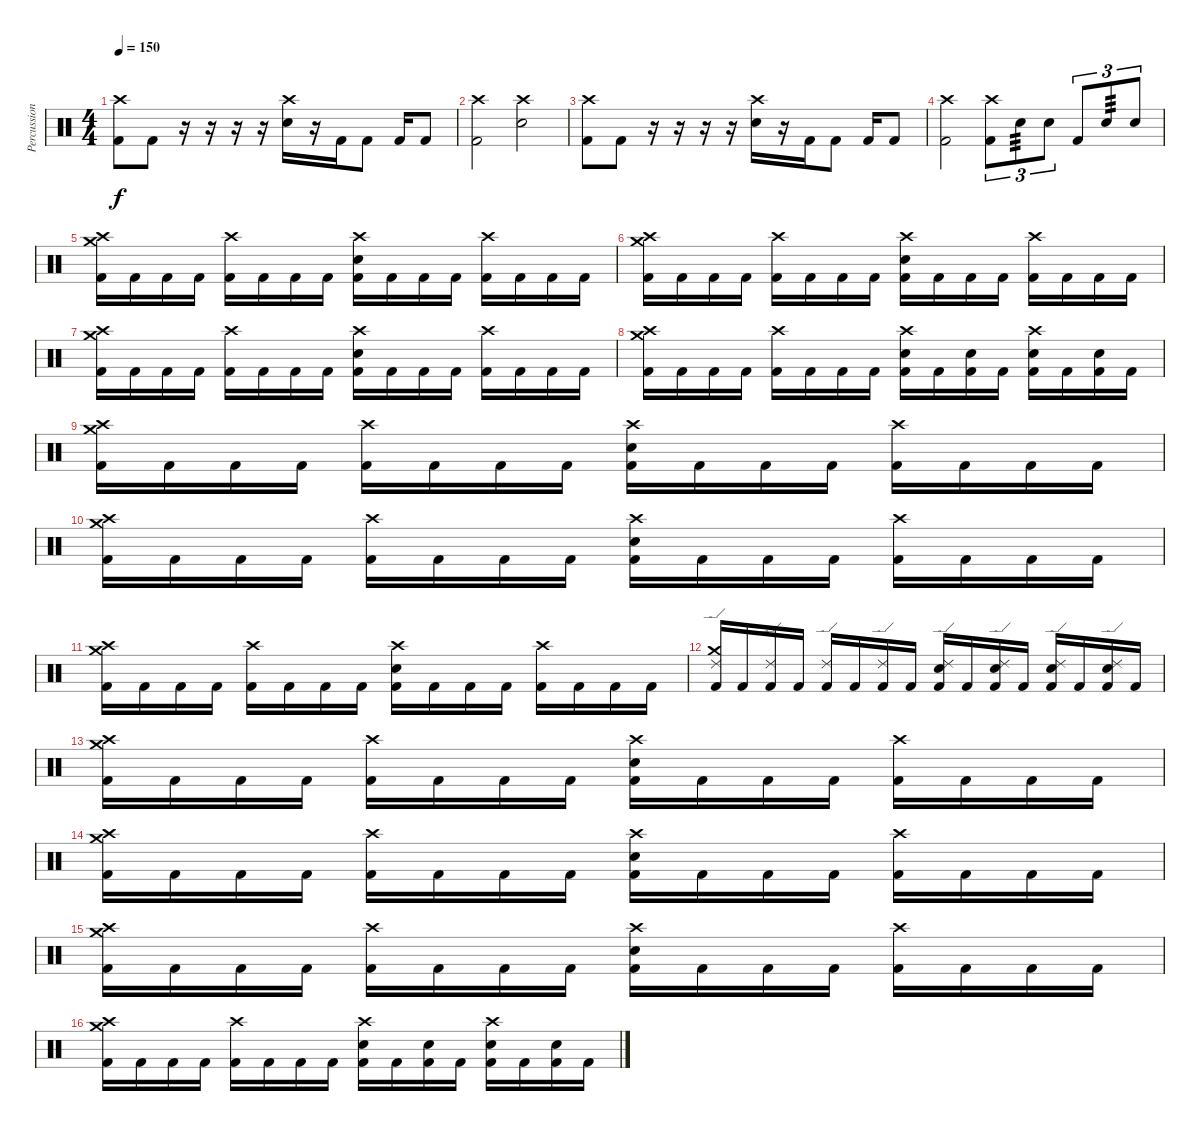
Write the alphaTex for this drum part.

\track ("Percussion" "Percussion") {instrument percussion}
\staff {score}
\articulation defaults
\ts (4 4)
\tempo 150
\clef neutral
\ks c
("Crash high (hit)" "Kick (hit) 2").8{dy f} "Kick (hit) 2".8 r.16 r.16 r.16 r.16 ("Crash high (hit)" "Electric Snare (hit)").16 r.16 "Kick (hit) 2".16 "Kick (hit) 2".8 "Kick (hit) 2".16 "Kick (hit) 2".8 |
("Crash high (hit)" "Kick (hit) 2").2 ("Crash high (hit)" "Electric Snare (hit)").2 |
("Crash high (hit)" "Kick (hit) 2").8 "Kick (hit) 2".8 r.16 r.16 r.16 r.16 ("Crash high (hit)" "Electric Snare (hit)").16 r.16 "Kick (hit) 2".16 "Kick (hit) 2".8 "Kick (hit) 2".16 "Kick (hit) 2".8 |
("Crash high (hit)" "Kick (hit) 2").2 ("Crash high (hit)" "Kick (hit) 2").8{tu (3 2)} "Electric Snare (hit)".8{tu (3 2) tp 3} "Electric Snare (hit)".8{tu (3 2)} "Kick (hit) 2".8{tu (3 2)} "Electric Snare (hit)".8{tu (3 2) tp 3} "Electric Snare (hit)".8{tu (3 2)} |
("Crash high (hit)" "Crash medium (hit)" "Kick (hit) 2").16 "Kick (hit) 2".16 "Kick (hit) 2".16 "Kick (hit) 2".16 ("Crash high (hit)" "Kick (hit) 2").16 "Kick (hit) 2".16 "Kick (hit) 2".16 "Kick (hit) 2".16 ("Crash high (hit)" "Electric Snare (hit)" "Kick (hit) 2").16 "Kick (hit) 2".16 "Kick (hit) 2".16 "Kick (hit) 2".16 ("Crash high (hit)" "Kick (hit) 2").16 "Kick (hit) 2".16 "Kick (hit) 2".16 "Kick (hit) 2".16 |
("Crash high (hit)" "Crash medium (hit)" "Kick (hit) 2").16 "Kick (hit) 2".16 "Kick (hit) 2".16 "Kick (hit) 2".16 ("Crash high (hit)" "Kick (hit) 2").16 "Kick (hit) 2".16 "Kick (hit) 2".16 "Kick (hit) 2".16 ("Crash high (hit)" "Electric Snare (hit)" "Kick (hit) 2").16 "Kick (hit) 2".16 "Kick (hit) 2".16 "Kick (hit) 2".16 ("Crash high (hit)" "Kick (hit) 2").16 "Kick (hit) 2".16 "Kick (hit) 2".16 "Kick (hit) 2".16 |
("Crash high (hit)" "Crash medium (hit)" "Kick (hit) 2").16 "Kick (hit) 2".16 "Kick (hit) 2".16 "Kick (hit) 2".16 ("Crash high (hit)" "Kick (hit) 2").16 "Kick (hit) 2".16 "Kick (hit) 2".16 "Kick (hit) 2".16 ("Crash high (hit)" "Electric Snare (hit)" "Kick (hit) 2").16 "Kick (hit) 2".16 "Kick (hit) 2".16 "Kick (hit) 2".16 ("Crash high (hit)" "Kick (hit) 2").16 "Kick (hit) 2".16 "Kick (hit) 2".16 "Kick (hit) 2".16 |
("Crash high (hit)" "Crash medium (hit)" "Kick (hit) 2").16 "Kick (hit) 2".16 "Kick (hit) 2".16 "Kick (hit) 2".16 ("Crash high (hit)" "Kick (hit) 2").16 "Kick (hit) 2".16 "Kick (hit) 2".16 "Kick (hit) 2".16 ("Crash high (hit)" "Electric Snare (hit)" "Kick (hit) 2").16 "Kick (hit) 2".16 ("Electric Snare (hit)" "Kick (hit) 2").16 "Kick (hit) 2".16 ("Crash high (hit)" "Electric Snare (hit)" "Kick (hit) 2").16 "Kick (hit) 2".16 ("Electric Snare (hit)" "Kick (hit) 2").16 "Kick (hit) 2".16 |
("Crash high (hit)" "Crash medium (hit)" "Kick (hit) 2").16 "Kick (hit) 2".16 "Kick (hit) 2".16 "Kick (hit) 2".16 ("Crash high (hit)" "Kick (hit) 2").16 "Kick (hit) 2".16 "Kick (hit) 2".16 "Kick (hit) 2".16 ("Crash high (hit)" "Electric Snare (hit)" "Kick (hit) 2").16 "Kick (hit) 2".16 "Kick (hit) 2".16 "Kick (hit) 2".16 ("Crash high (hit)" "Kick (hit) 2").16 "Kick (hit) 2".16 "Kick (hit) 2".16 "Kick (hit) 2".16 |
("Crash high (hit)" "Crash medium (hit)" "Kick (hit) 2").16 "Kick (hit) 2".16 "Kick (hit) 2".16 "Kick (hit) 2".16 ("Crash high (hit)" "Kick (hit) 2").16 "Kick (hit) 2".16 "Kick (hit) 2".16 "Kick (hit) 2".16 ("Crash high (hit)" "Electric Snare (hit)" "Kick (hit) 2").16 "Kick (hit) 2".16 "Kick (hit) 2".16 "Kick (hit) 2".16 ("Crash high (hit)" "Kick (hit) 2").16 "Kick (hit) 2".16 "Kick (hit) 2".16 "Kick (hit) 2".16 |
("Crash high (hit)" "Crash medium (hit)" "Kick (hit) 2").16 "Kick (hit) 2".16 "Kick (hit) 2".16 "Kick (hit) 2".16 ("Crash high (hit)" "Kick (hit) 2").16 "Kick (hit) 2".16 "Kick (hit) 2".16 "Kick (hit) 2".16 ("Crash high (hit)" "Electric Snare (hit)" "Kick (hit) 2").16 "Kick (hit) 2".16 "Kick (hit) 2".16 "Kick (hit) 2".16 ("Crash high (hit)" "Kick (hit) 2").16 "Kick (hit) 2".16 "Kick (hit) 2".16 "Kick (hit) 2".16 |
("Ride (edge) 2" "Crash medium (hit)" "Kick (hit) 2").16 "Kick (hit) 2".16 ("Ride (edge) 2" "Kick (hit) 2").16 "Kick (hit) 2".16 ("Ride (edge) 2" "Kick (hit) 2").16 "Kick (hit) 2".16 ("Ride (edge) 2" "Kick (hit) 2").16 "Kick (hit) 2".16 ("Ride (edge) 2" "Electric Snare (hit)" "Kick (hit) 2").16 "Kick (hit) 2".16 ("Ride (edge) 2" "Electric Snare (hit)" "Kick (hit) 2").16 "Kick (hit) 2".16 ("Ride (edge) 2" "Electric Snare (hit)" "Kick (hit) 2").16 "Kick (hit) 2".16 ("Ride (edge) 2" "Electric Snare (hit)" "Kick (hit) 2").16 "Kick (hit) 2".16 |
("Crash high (hit)" "Crash medium (hit)" "Kick (hit) 2").16 "Kick (hit) 2".16 "Kick (hit) 2".16 "Kick (hit) 2".16 ("Crash high (hit)" "Kick (hit) 2").16 "Kick (hit) 2".16 "Kick (hit) 2".16 "Kick (hit) 2".16 ("Crash high (hit)" "Electric Snare (hit)" "Kick (hit) 2").16 "Kick (hit) 2".16 "Kick (hit) 2".16 "Kick (hit) 2".16 ("Crash high (hit)" "Kick (hit) 2").16 "Kick (hit) 2".16 "Kick (hit) 2".16 "Kick (hit) 2".16 |
("Crash high (hit)" "Crash medium (hit)" "Kick (hit) 2").16 "Kick (hit) 2".16 "Kick (hit) 2".16 "Kick (hit) 2".16 ("Crash high (hit)" "Kick (hit) 2").16 "Kick (hit) 2".16 "Kick (hit) 2".16 "Kick (hit) 2".16 ("Crash high (hit)" "Electric Snare (hit)" "Kick (hit) 2").16 "Kick (hit) 2".16 "Kick (hit) 2".16 "Kick (hit) 2".16 ("Crash high (hit)" "Kick (hit) 2").16 "Kick (hit) 2".16 "Kick (hit) 2".16 "Kick (hit) 2".16 |
("Crash high (hit)" "Crash medium (hit)" "Kick (hit) 2").16 "Kick (hit) 2".16 "Kick (hit) 2".16 "Kick (hit) 2".16 ("Crash high (hit)" "Kick (hit) 2").16 "Kick (hit) 2".16 "Kick (hit) 2".16 "Kick (hit) 2".16 ("Crash high (hit)" "Electric Snare (hit)" "Kick (hit) 2").16 "Kick (hit) 2".16 "Kick (hit) 2".16 "Kick (hit) 2".16 ("Crash high (hit)" "Kick (hit) 2").16 "Kick (hit) 2".16 "Kick (hit) 2".16 "Kick (hit) 2".16 |
("Crash high (hit)" "Crash medium (hit)" "Kick (hit) 2").16 "Kick (hit) 2".16 "Kick (hit) 2".16 "Kick (hit) 2".16 ("Crash high (hit)" "Kick (hit) 2").16 "Kick (hit) 2".16 "Kick (hit) 2".16 "Kick (hit) 2".16 ("Crash high (hit)" "Electric Snare (hit)" "Kick (hit) 2").16 "Kick (hit) 2".16 ("Electric Snare (hit)" "Kick (hit) 2").16 "Kick (hit) 2".16 ("Crash high (hit)" "Electric Snare (hit)" "Kick (hit) 2").16 "Kick (hit) 2".16 ("Electric Snare (hit)" "Kick (hit) 2").16 "Kick (hit) 2".16
